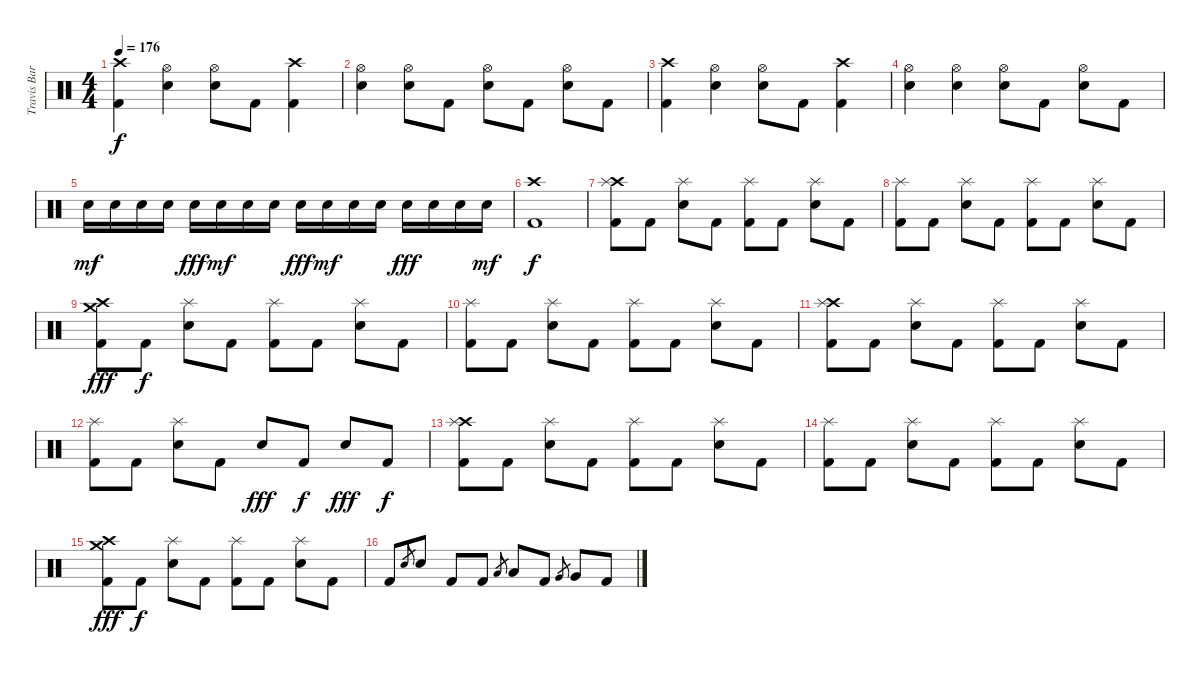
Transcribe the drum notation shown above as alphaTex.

\track ("Travis Barker - Drums" "Travis Bar") {instrument percussion}
\staff {score}
\articulation defaults
\ts (4 4)
\tempo 176
\clef neutral
\ks c
("Crash high (hit)" "Kick (hit) 2").4{dy f} ("Hi-Hat (open)" "Electric Snare (hit)").4 ("Hi-Hat (open)" "Electric Snare (hit)").8 "Kick (hit) 2".8 ("Crash high (hit)" "Kick (hit) 2").4 |
("Hi-Hat (open)" "Electric Snare (hit)").4 ("Hi-Hat (open)" "Electric Snare (hit)").8 "Kick (hit) 2".8 ("Hi-Hat (open)" "Electric Snare (hit)").8 "Kick (hit) 2".8 ("Hi-Hat (open)" "Electric Snare (hit)").8 "Kick (hit) 2".8 |
("Crash high (hit)" "Kick (hit) 2").4 ("Hi-Hat (open)" "Electric Snare (hit)").4 ("Hi-Hat (open)" "Electric Snare (hit)").8 "Kick (hit) 2".8 ("Crash high (hit)" "Kick (hit) 2").4 |
("Hi-Hat (open)" "Electric Snare (hit)").4 ("Hi-Hat (open)" "Electric Snare (hit)").4 ("Hi-Hat (open)" "Electric Snare (hit)").8 "Kick (hit) 2".8 ("Hi-Hat (open)" "Electric Snare (hit)").8 "Kick (hit) 2".8 |
"Electric Snare (hit)".16{dy mf} "Electric Snare (hit)".16 "Electric Snare (hit)".16 "Electric Snare (hit)".16 "Electric Snare (hit)".16{dy fff} "Electric Snare (hit)".16{dy mf} "Electric Snare (hit)".16 "Electric Snare (hit)".16 "Electric Snare (hit)".16{dy fff} "Electric Snare (hit)".16{dy mf} "Electric Snare (hit)".16 "Electric Snare (hit)".16 "Electric Snare (hit)".16{dy fff} "Electric Snare (hit)".16 "Electric Snare (hit)".16 "Electric Snare (hit)".16{dy mf} |
("Crash high (hit)" "Kick (hit) 2").1{dy f} |
("Crash high (hit)" "Splash (hit)" "Kick (hit) 2").8 "Kick (hit) 2".8 ("Splash (hit)" "Electric Snare (hit)").8 "Kick (hit) 2".8 ("Splash (hit)" "Kick (hit) 2").8 "Kick (hit) 2".8 ("Splash (hit)" "Electric Snare (hit)").8 "Kick (hit) 2".8 |
("Splash (hit)" "Kick (hit) 2").8 "Kick (hit) 2".8 ("Splash (hit)" "Electric Snare (hit)").8 "Kick (hit) 2".8 ("Splash (hit)" "Kick (hit) 2").8 "Kick (hit) 2".8 ("Splash (hit)" "Electric Snare (hit)").8 "Kick (hit) 2".8 |
("Crash high (hit)" "Crash medium (hit)" "Kick (hit) 2").8{dy fff} "Kick (hit) 2".8{dy f} ("Splash (hit)" "Electric Snare (hit)").8 "Kick (hit) 2".8 ("Splash (hit)" "Kick (hit) 2").8 "Kick (hit) 2".8 ("Splash (hit)" "Electric Snare (hit)").8 "Kick (hit) 2".8 |
("Splash (hit)" "Kick (hit) 2").8 "Kick (hit) 2".8 ("Splash (hit)" "Electric Snare (hit)").8 "Kick (hit) 2".8 ("Splash (hit)" "Kick (hit) 2").8 "Kick (hit) 2".8 ("Splash (hit)" "Electric Snare (hit)").8 "Kick (hit) 2".8 |
("Crash high (hit)" "Splash (hit)" "Kick (hit) 2").8 "Kick (hit) 2".8 ("Splash (hit)" "Electric Snare (hit)").8 "Kick (hit) 2".8 ("Splash (hit)" "Kick (hit) 2").8 "Kick (hit) 2".8 ("Splash (hit)" "Electric Snare (hit)").8 "Kick (hit) 2".8 |
("Splash (hit)" "Kick (hit) 2").8 "Kick (hit) 2".8 ("Splash (hit)" "Electric Snare (hit)").8 "Kick (hit) 2".8 "Electric Snare (hit)".8{dy fff} "Kick (hit) 2".8{dy f} "Electric Snare (hit)".8{dy fff} "Kick (hit) 2".8{dy f} |
("Crash high (hit)" "Splash (hit)" "Kick (hit) 2").8 "Kick (hit) 2".8 ("Splash (hit)" "Electric Snare (hit)").8 "Kick (hit) 2".8 ("Splash (hit)" "Kick (hit) 2").8 "Kick (hit) 2".8 ("Splash (hit)" "Electric Snare (hit)").8 "Kick (hit) 2".8 |
("Splash (hit)" "Kick (hit) 2").8 "Kick (hit) 2".8 ("Splash (hit)" "Electric Snare (hit)").8 "Kick (hit) 2".8 ("Splash (hit)" "Kick (hit) 2").8 "Kick (hit) 2".8 ("Splash (hit)" "Electric Snare (hit)").8 "Kick (hit) 2".8 |
("Crash high (hit)" "Crash medium (hit)" "Kick (hit) 2").8{dy fff} "Kick (hit) 2".8{dy f} ("Splash (hit)" "Electric Snare (hit)").8 "Kick (hit) 2".8 ("Splash (hit)" "Kick (hit) 2").8 "Kick (hit) 2".8 ("Splash (hit)" "Electric Snare (hit)").8 "Kick (hit) 2".8 |
"Kick (hit) 2".8 "Electric Snare (hit)".8{gr} "Electric Snare (hit)".8 "Kick (hit) 2".8 "Kick (hit) 2".8 "Low Tom (hit)".8{gr} "Low Tom (hit)".8 "Kick (hit) 2".8 "Very Low Tom (hit)".8{gr} "Very Low Tom (hit)".8 "Kick (hit) 2".8
